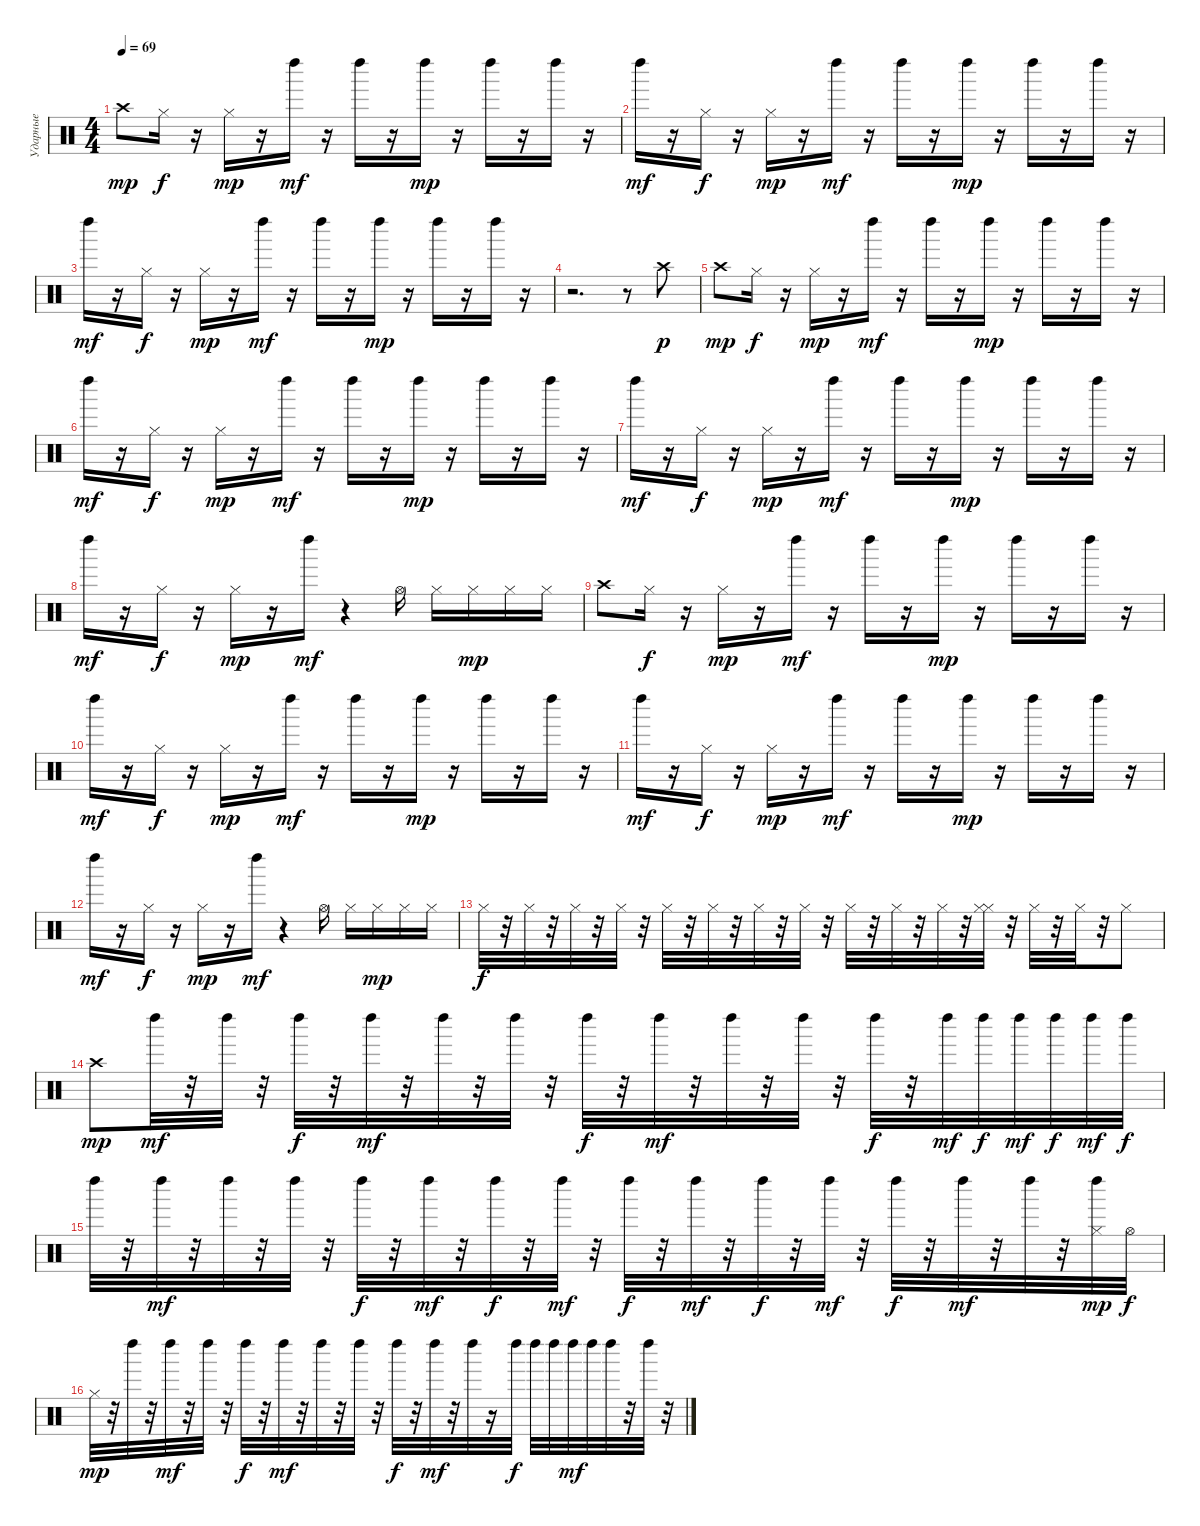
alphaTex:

\track ("Ударные" "Ударные") {instrument percussion}
\staff {score}
\articulation defaults
\ts (4 4)
\tempo 69
\clef neutral
\ks c "Crash high (hit)".8{dy mp} "Hi-Hat (closed)".16{dy f}
r.16 "Hi-Hat (closed)".16{dy mp} r.16 "Left Maraca (hit)".16{dy mf} r.16 "Left Maraca (hit)".16 r.16 "Left Maraca (hit)".16{dy mp} r.16 "Left Maraca (hit)".16 r.16 "Left Maraca (hit)".16 r.16 |
"Left Maraca (hit)".16{dy mf} r.16 "Hi-Hat (closed)".16{dy f} r.16 "Hi-Hat (closed)".16{dy mp} r.16 "Left Maraca (hit)".16{dy mf} r.16 "Left Maraca (hit)".16 r.16 "Left Maraca (hit)".16{dy mp} r.16 "Left Maraca (hit)".16 r.16 "Left Maraca (hit)".16 r.16 |
"Left Maraca (hit)".16{dy mf} r.16 "Hi-Hat (closed)".16{dy f} r.16 "Hi-Hat (closed)".16{dy mp} r.16 "Left Maraca (hit)".16{dy mf} r.16 "Left Maraca (hit)".16 r.16 "Left Maraca (hit)".16{dy mp} r.16 "Left Maraca (hit)".16 r.16 "Left Maraca (hit)".16 r.16 |
r.2{d} r.8 "Crash high (hit)".8{dy p} |
"Crash high (hit)".8{dy mp} "Hi-Hat (closed)".16{dy f} r.16 "Hi-Hat (closed)".16{dy mp} r.16 "Left Maraca (hit)".16{dy mf} r.16 "Left Maraca (hit)".16 r.16 "Left Maraca (hit)".16{dy mp} r.16 "Left Maraca (hit)".16 r.16 "Left Maraca (hit)".16 r.16 |
"Left Maraca (hit)".16{dy mf} r.16 "Hi-Hat (closed)".16{dy f} r.16 "Hi-Hat (closed)".16{dy mp} r.16 "Left Maraca (hit)".16{dy mf} r.16 "Left Maraca (hit)".16 r.16 "Left Maraca (hit)".16{dy mp} r.16 "Left Maraca (hit)".16 r.16 "Left Maraca (hit)".16 r.16 |
"Left Maraca (hit)".16{dy mf} r.16 "Hi-Hat (closed)".16{dy f} r.16 "Hi-Hat (closed)".16{dy mp} r.16 "Left Maraca (hit)".16{dy mf} r.16 "Left Maraca (hit)".16 r.16 "Left Maraca (hit)".16{dy mp} r.16 "Left Maraca (hit)".16 r.16 "Left Maraca (hit)".16 r.16 |
"Left Maraca (hit)".16{dy mf} r.16 "Hi-Hat (closed)".16{dy f} r.16 "Hi-Hat (closed)".16{dy mp} r.16 "Left Maraca (hit)".16{dy mf} r.4 "Hi-Hat (open)".16 "Hi-Hat (closed)".16 "Hi-Hat (closed)".16{dy mp} "Hi-Hat (closed)".16 "Hi-Hat (closed)".16 |
"Crash high (hit)".8 "Hi-Hat (closed)".16{dy f} r.16 "Hi-Hat (closed)".16{dy mp} r.16 "Left Maraca (hit)".16{dy mf} r.16 "Left Maraca (hit)".16 r.16 "Left Maraca (hit)".16{dy mp} r.16 "Left Maraca (hit)".16 r.16 "Left Maraca (hit)".16 r.16 |
"Left Maraca (hit)".16{dy mf} r.16 "Hi-Hat (closed)".16{dy f} r.16 "Hi-Hat (closed)".16{dy mp} r.16 "Left Maraca (hit)".16{dy mf} r.16 "Left Maraca (hit)".16 r.16 "Left Maraca (hit)".16{dy mp} r.16 "Left Maraca (hit)".16 r.16 "Left Maraca (hit)".16 r.16 |
"Left Maraca (hit)".16{dy mf} r.16 "Hi-Hat (closed)".16{dy f} r.16 "Hi-Hat (closed)".16{dy mp} r.16 "Left Maraca (hit)".16{dy mf} r.16 "Left Maraca (hit)".16 r.16 "Left Maraca (hit)".16{dy mp} r.16 "Left Maraca (hit)".16 r.16 "Left Maraca (hit)".16 r.16 |
"Left Maraca (hit)".16{dy mf} r.16 "Hi-Hat (closed)".16{dy f} r.16 "Hi-Hat (closed)".16{dy mp} r.16 "Left Maraca (hit)".16{dy mf} r.4 "Hi-Hat (open)".16 "Hi-Hat (closed)".16 "Hi-Hat (closed)".16{dy mp} "Hi-Hat (closed)".16 "Hi-Hat (closed)".16 |
"Hi-Hat (closed)".32{dy f} r.32 "Hi-Hat (closed)".32 r.32 "Hi-Hat (closed)".32 r.32 "Hi-Hat (closed)".32 r.32 "Hi-Hat (closed)".32 r.32 "Hi-Hat (closed)".32 r.32 "Hi-Hat (closed)".32 r.32 "Hi-Hat (closed)".32 r.32 "Hi-Hat (closed)".32 r.32 "Hi-Hat (closed)".32 r.32 "Hi-Hat (closed)".32 r.32 ("Hi-Hat (closed)" "Hi-Hat (closed)").32 r.32 "Hi-Hat (closed)".32 r.32 "Hi-Hat (closed)".32 r.32 "Hi-Hat (closed)".8 |
"Crash high (hit)".8{dy mp} "Left Maraca (hit)".32{dy mf} r.32 "Left Maraca (hit)".32 r.32 "Left Maraca (hit)".32{dy f} r.32 "Left Maraca (hit)".32{dy mf} r.32 "Left Maraca (hit)".32 r.32 "Left Maraca (hit)".32 r.32 "Left Maraca (hit)".32{dy f} r.32 "Left Maraca (hit)".32{dy mf} r.32 "Left Maraca (hit)".32 r.32 "Left Maraca (hit)".32 r.32 "Left Maraca (hit)".32{dy f} r.32 "Left Maraca (hit)".32{dy mf} "Left Maraca (hit)".32{dy f} "Left Maraca (hit)".32{dy mf} "Left Maraca (hit)".32{dy f} "Left Maraca (hit)".32{dy mf} "Left Maraca (hit)".32{dy f} |
"Left Maraca (hit)".32 r.32 "Left Maraca (hit)".32{dy mf} r.32 "Left Maraca (hit)".32 r.32 "Left Maraca (hit)".32 r.32 "Left Maraca (hit)".32{dy f} r.32 "Left Maraca (hit)".32{dy mf} r.32 "Left Maraca (hit)".32{dy f} r.32 "Left Maraca (hit)".32{dy mf} r.32 "Left Maraca (hit)".32{dy f} r.32 "Left Maraca (hit)".32{dy mf} r.32 "Left Maraca (hit)".32{dy f} r.32 "Left Maraca (hit)".32{dy mf} r.32 "Left Maraca (hit)".32{dy f} r.32 "Left Maraca (hit)".32{dy mf} r.32 "Left Maraca (hit)".32 r.32 ("Left Maraca (hit)" "Hi-Hat (closed)").32{dy mp} "Hi-Hat (open)".32{dy f} |
"Hi-Hat (closed)".32{dy mp} r.32 "Left Maraca (hit)".32 r.32 "Left Maraca (hit)".32{dy mf} r.32 "Left Maraca (hit)".32 r.32 "Left Maraca (hit)".32{dy f} r.32 "Left Maraca (hit)".32{dy mf} r.32 "Left Maraca (hit)".32 r.32 "Left Maraca (hit)".32 r.32 "Left Maraca (hit)".32{dy f} r.32 "Left Maraca (hit)".32{dy mf} r.32 "Left Maraca (hit)".32 r.16 "Left Maraca (hit)".32{dy f} "Left Maraca (hit)".32 "Left Maraca (hit)".32 "Left Maraca (hit)".32{dy mf} "Left Maraca (hit)".32 "Left Maraca (hit)".32 r.32 "Left Maraca (hit)".32 r.32
